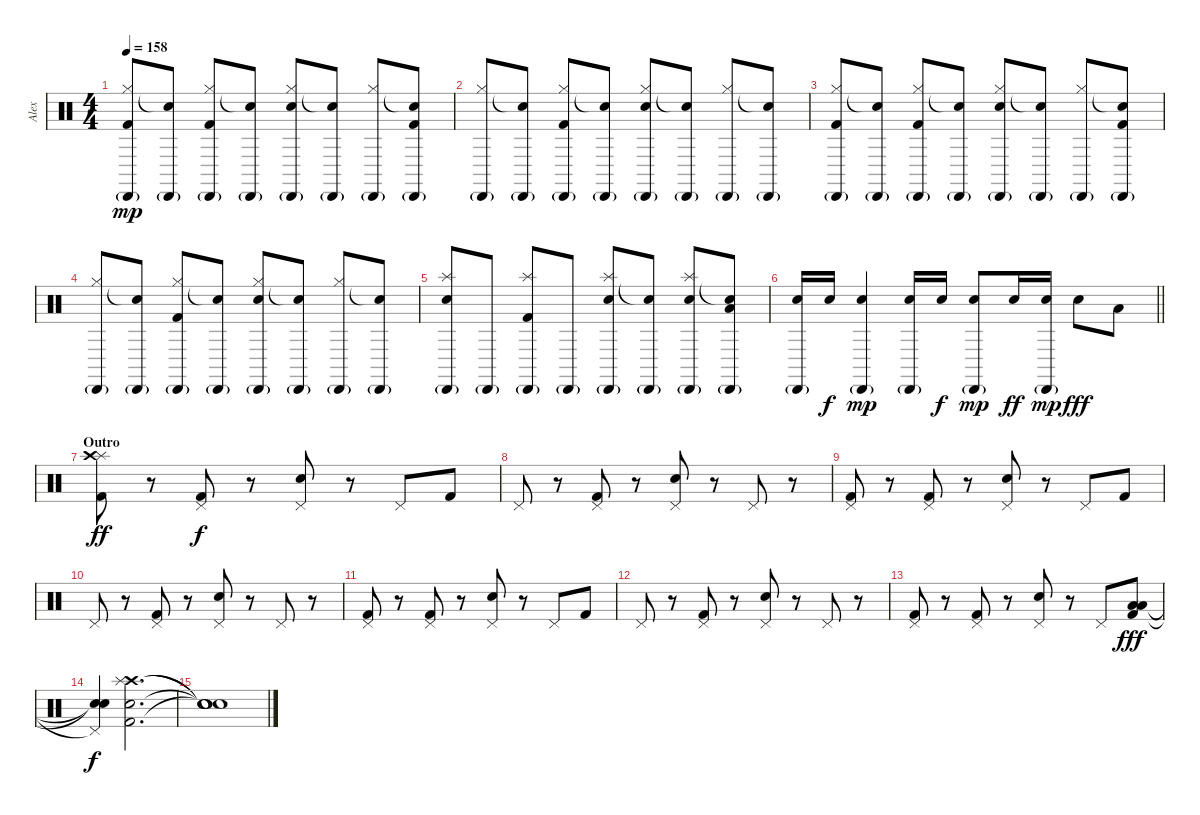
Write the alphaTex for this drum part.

\track ("Alex" "Alex") {instrument percussion}
\staff {score}
\articulation defaults
\ts (4 4)
\tempo 158
\clef neutral
\ks c
("Hi-Hat (closed)" "Kick (hit) 2" "Cabasa (hit)"{g}).8{dy mp} ("Snare (hit)"{t} "Cabasa (hit)"{g}).8 ("Hi-Hat (closed)" "Kick (hit) 2" "Cabasa (hit)"{g}).8 ("Snare (hit)"{t} "Cabasa (hit)"{g}).8 ("Hi-Hat (closed)" "Electric Snare (hit)" "Cabasa (hit)"{g}).8 ("Snare (hit)"{t} "Cabasa (hit)"{g}).8 ("Hi-Hat (closed)" "Cabasa (hit)"{g}).8 ("Snare (hit)"{t} "Kick (hit) 2" "Cabasa (hit)"{g}).8 |
("Hi-Hat (closed)" "Cabasa (hit)"{g}).8 ("Snare (hit)"{t} "Cabasa (hit)"{g}).8 ("Hi-Hat (closed)" "Kick (hit) 2" "Cabasa (hit)"{g}).8 ("Snare (hit)"{t} "Cabasa (hit)"{g}).8 ("Hi-Hat (closed)" "Electric Snare (hit)" "Cabasa (hit)"{g}).8 ("Snare (hit)"{t} "Cabasa (hit)"{g}).8 ("Hi-Hat (closed)" "Cabasa (hit)"{g}).8 ("Snare (hit)"{t} "Cabasa (hit)"{g}).8 |
("Hi-Hat (closed)" "Kick (hit) 2" "Cabasa (hit)"{g}).8 ("Snare (hit)"{t} "Cabasa (hit)"{g}).8 ("Hi-Hat (closed)" "Kick (hit) 2" "Cabasa (hit)"{g}).8 ("Snare (hit)"{t} "Cabasa (hit)"{g}).8 ("Hi-Hat (closed)" "Electric Snare (hit)" "Cabasa (hit)"{g}).8 ("Snare (hit)"{t} "Cabasa (hit)"{g}).8 ("Hi-Hat (closed)" "Cabasa (hit)"{g}).8 ("Snare (hit)"{t} "Kick (hit) 2" "Cabasa (hit)"{g}).8 |
("Hi-Hat (closed)" "Cabasa (hit)"{g}).8 ("Snare (hit)"{t} "Cabasa (hit)"{g}).8 ("Hi-Hat (closed)" "Kick (hit) 2" "Cabasa (hit)"{g}).8 ("Snare (hit)"{t} "Cabasa (hit)"{g}).8 ("Hi-Hat (closed)" "Electric Snare (hit)" "Cabasa (hit)"{g}).8 ("Snare (hit)"{t} "Cabasa (hit)"{g}).8 ("Hi-Hat (closed)" "Cabasa (hit)"{g}).8 ("Snare (hit)"{t} "Cabasa (hit)"{g}).8 |
("Splash (hit)" "Snare (hit) 2" "Cabasa (hit)"{g}).8 "Cabasa (hit)"{g}.8 ("Splash (hit)" "Kick (hit) 2" "Cabasa (hit)"{g}).8 "Cabasa (hit)"{g}.8 ("Splash (hit)" "Snare (hit) 2" "Cabasa (hit)"{g}).8 ("Snare (hit)"{t} "Cabasa (hit)"{g}).8 ("Splash (hit)" "Snare (hit) 2" "Cabasa (hit)"{g}).8 ("Snare (hit)"{t} "Low Tom (hit)" "Cabasa (hit)"{g}).8 |
\barLineRight lightlight
("Snare (hit) 2" "Cabasa (hit)"{g}).16 "Snare (hit) 2".16{dy f} ("Snare (hit) 2" "Cabasa (hit)"{g}).4{dy mp} ("Snare (hit) 2" "Cabasa (hit)"{g}).16 "Snare (hit) 2".16{dy f} ("Snare (hit) 2" "Cabasa (hit)"{g}).8{dy mp} "Snare (hit) 2".16{dy ff} ("Snare (hit) 2" "Cabasa (hit)"{g}).16{dy mp} "Snare (hit) 2".8{dy fff} "Low Tom (hit)".8 |
\section ("" "Outro")
("Splash (hit)" "Kick (hit) 2" "Crash high (hit)").8{dy ff} r.8 ("Pedal Hi-Hat (hit)" "Kick (hit) 2").8{dy f} r.8 ("Pedal Hi-Hat (hit)" "Electric Snare (hit)").8 r.8 "Pedal Hi-Hat (hit)".8 "Kick (hit) 2".8 |
"Pedal Hi-Hat (hit)".8 r.8 ("Pedal Hi-Hat (hit)" "Kick (hit) 2").8 r.8 ("Pedal Hi-Hat (hit)" "Electric Snare (hit)").8 r.8 "Pedal Hi-Hat (hit)".8 r.8 |
("Pedal Hi-Hat (hit)" "Kick (hit) 2").8 r.8 ("Pedal Hi-Hat (hit)" "Kick (hit) 2").8 r.8 ("Pedal Hi-Hat (hit)" "Electric Snare (hit)").8 r.8 "Pedal Hi-Hat (hit)".8 "Kick (hit) 2".8 |
"Pedal Hi-Hat (hit)".8 r.8 ("Pedal Hi-Hat (hit)" "Kick (hit) 2").8 r.8 ("Pedal Hi-Hat (hit)" "Electric Snare (hit)").8 r.8 "Pedal Hi-Hat (hit)".8 r.8 |
("Pedal Hi-Hat (hit)" "Kick (hit) 2").8 r.8 ("Pedal Hi-Hat (hit)" "Kick (hit) 2").8 r.8 ("Pedal Hi-Hat (hit)" "Electric Snare (hit)").8 r.8 "Pedal Hi-Hat (hit)".8 "Kick (hit) 2".8 |
"Pedal Hi-Hat (hit)".8 r.8 ("Pedal Hi-Hat (hit)" "Kick (hit) 2").8 r.8 ("Pedal Hi-Hat (hit)" "Electric Snare (hit)").8 r.8 "Pedal Hi-Hat (hit)".8 r.8 |
("Pedal Hi-Hat (hit)" "Kick (hit) 2").8 r.8 ("Pedal Hi-Hat (hit)" "Kick (hit) 2").8 r.8 ("Pedal Hi-Hat (hit)" "Electric Snare (hit)").8 r.8 "Pedal Hi-Hat (hit)".8 ("Low Tom (hit)" "Kick (hit) 2" "Low Tom (hit)").8{dy fff} |
("Pedal Hi-Hat (hit)"{t} "Snare (hit)"{t} "Snare (hit)"{t}).4{dy f} ("Crash high (hit)" "Kick (hit) 2" "Electric Snare (hit)" "Splash (hit)").2{d} |
("Snare (hit)"{t} "Snare (hit)"{t} "Snare (hit)"{t} "Snare (hit)"{t}).1
